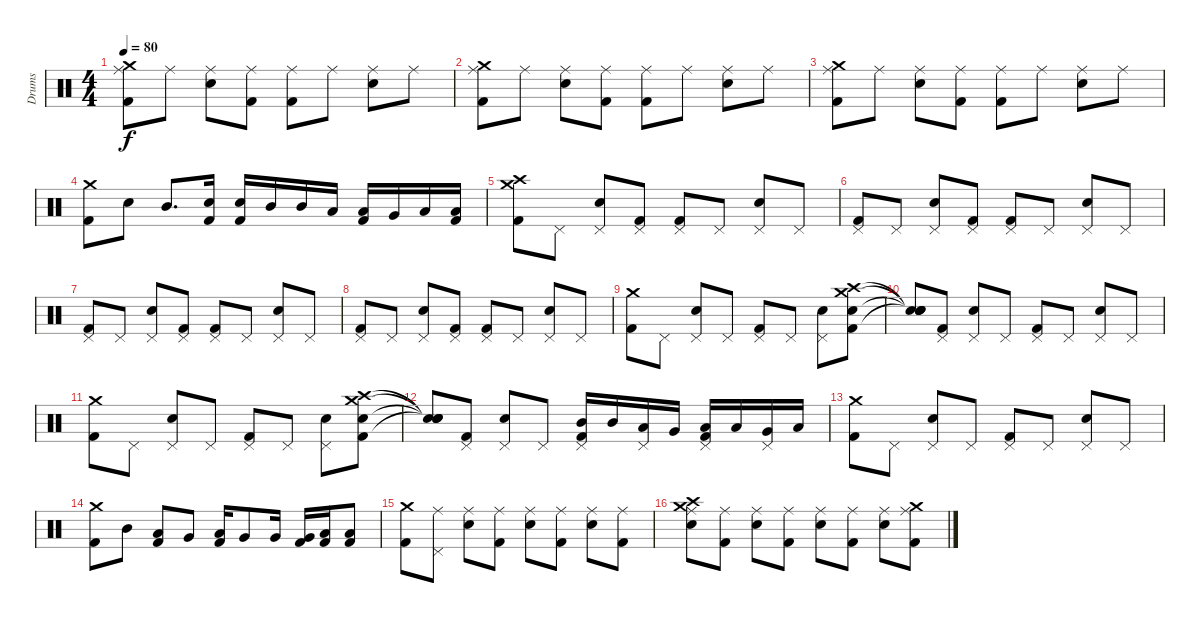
\track ("Drums" "Drums") {instrument percussion}
\staff {score}
\articulation defaults
\ts (4 4)
\tempo 80
\clef neutral
\ks c
("Ride (middle)" "Kick (hit) 2" "Crash medium (hit)").8{dy f} "Ride (middle)".8 ("Ride (middle)" "Snare (hit) 2").8 ("Ride (middle)" "Kick (hit) 2").8 ("Ride (middle)" "Kick (hit) 2").8 "Ride (middle)".8 ("Ride (middle)" "Snare (hit) 2").8 "Ride (middle)".8 |
("Ride (middle)" "Kick (hit) 2" "Crash medium (hit)").8 "Ride (middle)".8 ("Ride (middle)" "Snare (hit) 2").8 ("Ride (middle)" "Kick (hit) 2").8 ("Ride (middle)" "Kick (hit) 2").8 "Ride (middle)".8 ("Ride (middle)" "Snare (hit) 2").8 "Ride (middle)".8 |
("Ride (middle)" "Crash medium (hit)" "Kick (hit) 2").8 "Ride (middle)".8 ("Ride (middle)" "Snare (hit) 2").8 ("Ride (middle)" "Kick (hit) 2").8 ("Ride (middle)" "Kick (hit) 2").8 "Ride (middle)".8 ("Ride (middle)" "Snare (hit) 2").8 "Ride (middle)".8 |
("Crash medium (hit)" "Kick (hit) 2").8 "Snare (hit) 2".8 "Mid Tom (hit)".8{d} ("Kick (hit) 2" "Snare (hit) 2").16 ("Kick (hit) 2" "Snare (hit) 2").16 "Mid Tom (hit)".16 "Mid Tom (hit)".16 "Low Tom (hit)".16 ("Kick (hit) 2" "Low Tom (hit)").16 "Very Low Tom (hit)".16 "Low Floor Tom (hit)".16 ("Low Floor Tom (hit)" "Kick (hit) 2").16 |
("Kick (hit) 2" "Crash high (hit)" "Crash medium (hit)").8 "Pedal Hi-Hat (hit)".8 ("Pedal Hi-Hat (hit)" "Snare (hit) 2").8 ("Pedal Hi-Hat (hit)" "Kick (hit) 2").8 ("Pedal Hi-Hat (hit)" "Kick (hit) 2").8 "Pedal Hi-Hat (hit)".8 ("Pedal Hi-Hat (hit)" "Snare (hit) 2").8 "Pedal Hi-Hat (hit)".8 |
("Pedal Hi-Hat (hit)" "Kick (hit) 2").8 "Pedal Hi-Hat (hit)".8 ("Pedal Hi-Hat (hit)" "Snare (hit) 2").8 ("Pedal Hi-Hat (hit)" "Kick (hit) 2").8 ("Pedal Hi-Hat (hit)" "Kick (hit) 2").8 "Pedal Hi-Hat (hit)".8 ("Pedal Hi-Hat (hit)" "Snare (hit) 2").8 "Pedal Hi-Hat (hit)".8 |
("Pedal Hi-Hat (hit)" "Kick (hit) 2").8 "Pedal Hi-Hat (hit)".8 ("Pedal Hi-Hat (hit)" "Snare (hit) 2").8 ("Pedal Hi-Hat (hit)" "Kick (hit) 2").8 ("Pedal Hi-Hat (hit)" "Kick (hit) 2").8 "Pedal Hi-Hat (hit)".8 ("Pedal Hi-Hat (hit)" "Snare (hit) 2").8 "Pedal Hi-Hat (hit)".8 |
("Pedal Hi-Hat (hit)" "Kick (hit) 2").8 "Pedal Hi-Hat (hit)".8 ("Pedal Hi-Hat (hit)" "Snare (hit) 2").8 ("Pedal Hi-Hat (hit)" "Kick (hit) 2").8 ("Pedal Hi-Hat (hit)" "Kick (hit) 2").8 "Pedal Hi-Hat (hit)".8 ("Pedal Hi-Hat (hit)" "Snare (hit) 2").8 "Pedal Hi-Hat (hit)".8 |
("Crash medium (hit)" "Kick (hit) 2").8 "Pedal Hi-Hat (hit)".8 ("Pedal Hi-Hat (hit)" "Snare (hit) 2").8 "Pedal Hi-Hat (hit)".8 ("Pedal Hi-Hat (hit)" "Kick (hit) 2").8 "Pedal Hi-Hat (hit)".8 ("Pedal Hi-Hat (hit)" "Snare (hit) 2").8 ("Crash high (hit)" "Crash medium (hit)" "Snare (hit) 2" "Kick (hit) 2").8 |
("Snare (hit)"{t} "Snare (hit)"{t} "Snare (hit)"{t} "Snare (hit)"{t}).8 ("Pedal Hi-Hat (hit)" "Kick (hit) 2").8 ("Pedal Hi-Hat (hit)" "Snare (hit) 2").8 "Pedal Hi-Hat (hit)".8 ("Pedal Hi-Hat (hit)" "Kick (hit) 2").8 "Pedal Hi-Hat (hit)".8 ("Pedal Hi-Hat (hit)" "Snare (hit) 2").8 "Pedal Hi-Hat (hit)".8 |
("Kick (hit) 2" "Crash medium (hit)").8 "Pedal Hi-Hat (hit)".8 ("Pedal Hi-Hat (hit)" "Snare (hit) 2").8 "Pedal Hi-Hat (hit)".8 ("Pedal Hi-Hat (hit)" "Kick (hit) 2").8 "Pedal Hi-Hat (hit)".8 ("Pedal Hi-Hat (hit)" "Snare (hit) 2").8 ("Kick (hit) 2" "Snare (hit) 2" "Crash high (hit)" "Crash medium (hit)").8 |
("Snare (hit)"{t} "Snare (hit)"{t} "Snare (hit)"{t} "Snare (hit)"{t}).8 ("Pedal Hi-Hat (hit)" "Kick (hit) 2").8 ("Pedal Hi-Hat (hit)" "Snare (hit) 2").8 "Pedal Hi-Hat (hit)".8 ("Mid Tom (hit)" "Pedal Hi-Hat (hit)" "Kick (hit) 2").16 "Mid Tom (hit)".16 ("Low Tom (hit)" "Pedal Hi-Hat (hit)").16 "Very Low Tom (hit)".16 ("Kick (hit) 2" "Low Floor Tom (hit)" "Pedal Hi-Hat (hit)").16 "Low Tom (hit)".16 ("Very Low Tom (hit)" "Pedal Hi-Hat (hit)").16 "Low Floor Tom (hit)".16 |
("Crash medium (hit)" "Kick (hit) 2").8 "Pedal Hi-Hat (hit)".8 ("Pedal Hi-Hat (hit)" "Snare (hit) 2").8 "Pedal Hi-Hat (hit)".8 ("Pedal Hi-Hat (hit)" "Kick (hit) 2").8 "Pedal Hi-Hat (hit)".8 ("Pedal Hi-Hat (hit)" "Snare (hit) 2").8 "Pedal Hi-Hat (hit)".8 |
("Kick (hit) 2" "Crash medium (hit)").8 "Mid Tom (hit)".8 ("Kick (hit) 2" "Low Tom (hit)").8 "Very Low Tom (hit)".8 ("Kick (hit) 2" "Low Tom (hit)").16 "Very Low Tom (hit)".8 "Very Low Tom (hit)".16 ("Kick (hit) 2" "Very Low Tom (hit)").16 ("Kick (hit) 2" "Low Floor Tom (hit)").16 ("Kick (hit) 2" "Low Floor Tom (hit)").8 |
("Crash medium (hit)" "Kick (hit) 2").8 ("Ride (middle)" "Pedal Hi-Hat (hit)").8 ("Snare (hit) 2" "Ride (middle)").8 ("Ride (middle)" "Kick (hit) 2").8 ("Ride (middle)" "Snare (hit) 2").8 ("Ride (middle)" "Kick (hit) 2").8 ("Ride (middle)" "Snare (hit) 2").8 ("Ride (middle)" "Kick (hit) 2").8 |
("Crash high (hit)" "Ride (middle)" "Snare (hit) 2" "Crash medium (hit)").8 ("Ride (middle)" "Kick (hit) 2").8 ("Ride (middle)" "Snare (hit) 2").8 ("Kick (hit) 2" "Ride (middle)").8 ("Ride (middle)" "Snare (hit) 2").8 ("Ride (middle)" "Kick (hit) 2").8 ("Ride (middle)" "Snare (hit) 2").8 ("Crash medium (hit)" "Ride (middle)" "Kick (hit) 2").8
